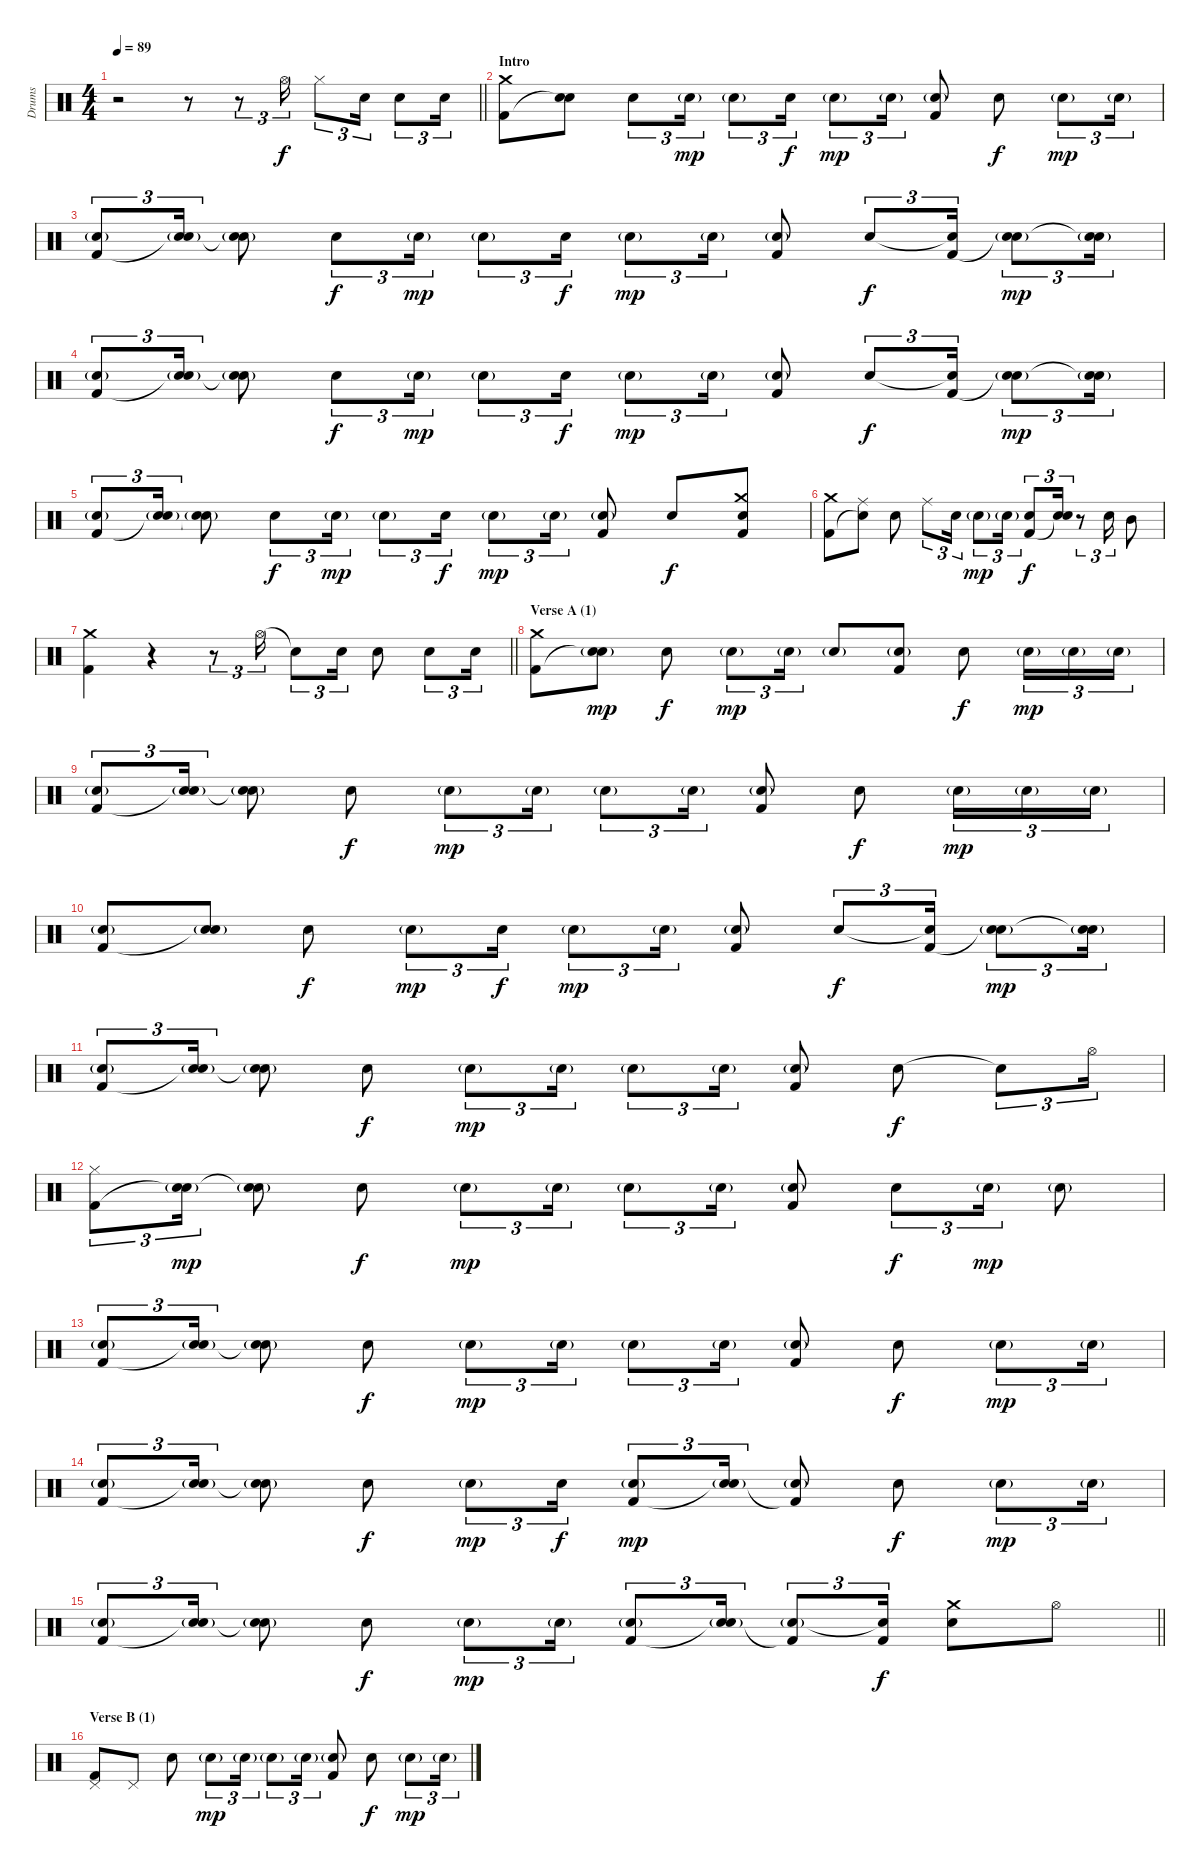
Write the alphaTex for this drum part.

\track ("Drums" "Drums") {instrument percussion}
\staff {score}
\articulation defaults
\ts (4 4)
\tempo 89
\clef neutral
\barLineRight lightlight
\ks c
r.2{dy f} r.8 r.8{tu (3 2)} "Hi-Hat (open)".16{tu (3 2)} "Hi-Hat (closed)".8{tu (3 2)} "Electric Snare (hit)".16{tu (3 2)} "Electric Snare (hit)".8{tu (3 2)} "Electric Snare (hit)".16{tu (3 2)} |
\section ("" "Intro")
("Crash medium (hit)" "Kick (hit) 2").8 ("Electric Snare (hit)" "Snare (hit)"{t}).8 "Electric Snare (hit)".8{tu (3 2)} "Electric Snare (hit)"{g}.16{tu (3 2) dy mp} "Electric Snare (hit)"{g}.8{tu (3 2)} "Electric Snare (hit)".16{tu (3 2) dy f} "Electric Snare (hit)"{g}.8{tu (3 2) dy mp} "Electric Snare (hit)"{g}.16{tu (3 2)} ("Electric Snare (hit)"{g} "Kick (hit) 2").8 "Electric Snare (hit)".8{dy f} "Electric Snare (hit)"{g}.8{tu (3 2) dy mp} "Electric Snare (hit)"{g}.16{tu (3 2)} |
("Electric Snare (hit)"{g} "Kick (hit) 2").8{tu (3 2)} ("Electric Snare (hit)"{g} "Snare (hit)"{t}).16{tu (3 2)} ("Electric Snare (hit)"{g} "Snare (hit)"{t}).8 "Electric Snare (hit)".8{tu (3 2) dy f} "Electric Snare (hit)"{g}.16{tu (3 2) dy mp} "Electric Snare (hit)"{g}.8{tu (3 2)} "Electric Snare (hit)".16{tu (3 2) dy f} "Electric Snare (hit)"{g}.8{tu (3 2) dy mp} "Electric Snare (hit)"{g}.16{tu (3 2)} ("Electric Snare (hit)"{g} "Kick (hit) 2").8 "Electric Snare (hit)".8{tu (3 2) dy f} ("Snare (hit)"{t} "Kick (hit) 2").16{tu (3 2)} ("Electric Snare (hit)"{g} "Snare (hit)"{t}).8{tu (3 2) dy mp} ("Electric Snare (hit)"{g} "Snare (hit)"{t}).16{tu (3 2)} |
("Electric Snare (hit)"{g} "Kick (hit) 2").8{tu (3 2)} ("Electric Snare (hit)"{g} "Snare (hit)"{t}).16{tu (3 2)} ("Electric Snare (hit)"{g} "Snare (hit)"{t}).8 "Electric Snare (hit)".8{tu (3 2) dy f} "Electric Snare (hit)"{g}.16{tu (3 2) dy mp} "Electric Snare (hit)"{g}.8{tu (3 2)} "Electric Snare (hit)".16{tu (3 2) dy f} "Electric Snare (hit)"{g}.8{tu (3 2) dy mp} "Electric Snare (hit)"{g}.16{tu (3 2)} ("Electric Snare (hit)"{g} "Kick (hit) 2").8 "Electric Snare (hit)".8{tu (3 2) dy f} ("Snare (hit)"{t} "Kick (hit) 2").16{tu (3 2)} ("Electric Snare (hit)"{g} "Snare (hit)"{t}).8{tu (3 2) dy mp} ("Electric Snare (hit)"{g} "Snare (hit)"{t}).16{tu (3 2)} |
("Electric Snare (hit)"{g} "Kick (hit) 2").8{tu (3 2)} ("Electric Snare (hit)"{g} "Snare (hit)"{t}).16{tu (3 2)} ("Electric Snare (hit)"{g} "Snare (hit)"{t}).8 "Electric Snare (hit)".8{tu (3 2) dy f} "Electric Snare (hit)"{g}.16{tu (3 2) dy mp} "Electric Snare (hit)"{g}.8{tu (3 2)} "Electric Snare (hit)".16{tu (3 2) dy f} "Electric Snare (hit)"{g}.8{tu (3 2) dy mp} "Electric Snare (hit)"{g}.16{tu (3 2)} ("Electric Snare (hit)"{g} "Kick (hit) 2").8 "Electric Snare (hit)".8{dy f} ("Crash medium (hit)" "Electric Snare (hit)" "Kick (hit) 2").8 |
("Crash medium (hit)" "Kick (hit) 2").8 ("Ride (middle)" "Snare (hit)"{t}).8 "Electric Snare (hit)".8 "Ride (middle)".8{tu (3 2)} "Electric Snare (hit)".16{tu (3 2)} "Electric Snare (hit)"{g}.8{tu (3 2) dy mp} "Electric Snare (hit)"{g}.16{tu (3 2)} ("Electric Snare (hit)" "Kick (hit) 2").8{tu (3 2) dy f} ("Electric Snare (hit)" "Snare (hit)"{t}).16{tu (3 2)} r.8{tu (3 2)} "Electric Snare (hit)".16{tu (3 2)} "Mid Tom (hit)".8 |
\barLineRight lightlight
("Crash medium (hit)" "Kick (hit) 2").4 r.4 r.8{tu (3 2)} "Hi-Hat (open)".16{tu (3 2)} "Snare (hit)"{t}.8{tu (3 2)} "Electric Snare (hit)".16{tu (3 2)} "Electric Snare (hit)".8 "Electric Snare (hit)".8{tu (3 2)} "Electric Snare (hit)".16{tu (3 2)} |
\section ("" "Verse A (1)")
("Crash medium (hit)" "Kick (hit) 2").8 ("Electric Snare (hit)"{g} "Snare (hit)"{t}).8{dy mp} "Electric Snare (hit)".8{dy f} "Electric Snare (hit)"{g}.8{tu (3 2) dy mp} "Electric Snare (hit)"{g}.16{tu (3 2)} "Electric Snare (hit)"{g}.8 ("Electric Snare (hit)"{g} "Kick (hit) 2").8 "Electric Snare (hit)".8{dy f} "Electric Snare (hit)"{g}.16{tu (3 2) dy mp} "Electric Snare (hit)"{g}.16{tu (3 2)} "Electric Snare (hit)"{g}.16{tu (3 2)} |
("Electric Snare (hit)"{g} "Kick (hit) 2").8{tu (3 2)} ("Electric Snare (hit)"{g} "Snare (hit)"{t}).16{tu (3 2)} ("Electric Snare (hit)"{g} "Snare (hit)"{t}).8 "Electric Snare (hit)".8{dy f} "Electric Snare (hit)"{g}.8{tu (3 2) dy mp} "Electric Snare (hit)"{g}.16{tu (3 2)} "Electric Snare (hit)"{g}.8{tu (3 2)} "Electric Snare (hit)"{g}.16{tu (3 2)} ("Electric Snare (hit)"{g} "Kick (hit) 2").8 "Electric Snare (hit)".8{dy f} "Electric Snare (hit)"{g}.16{tu (3 2) dy mp} "Electric Snare (hit)"{g}.16{tu (3 2)} "Electric Snare (hit)"{g}.16{tu (3 2)} |
("Electric Snare (hit)"{g} "Kick (hit) 2").8 ("Electric Snare (hit)"{g} "Snare (hit)"{t}).8 "Electric Snare (hit)".8{dy f} "Electric Snare (hit)"{g}.8{tu (3 2) dy mp} "Electric Snare (hit)".16{tu (3 2) dy f} "Electric Snare (hit)"{g}.8{tu (3 2) dy mp} "Electric Snare (hit)"{g}.16{tu (3 2)} ("Electric Snare (hit)"{g} "Kick (hit) 2").8 "Electric Snare (hit)".8{tu (3 2) dy f} ("Snare (hit)"{t} "Kick (hit) 2").16{tu (3 2)} ("Electric Snare (hit)"{g} "Snare (hit)"{t}).8{tu (3 2) dy mp} ("Electric Snare (hit)"{g} "Snare (hit)"{t}).16{tu (3 2)} |
("Electric Snare (hit)"{g} "Kick (hit) 2").8{tu (3 2)} ("Electric Snare (hit)"{g} "Snare (hit)"{t}).16{tu (3 2)} ("Electric Snare (hit)"{g} "Snare (hit)"{t}).8 "Electric Snare (hit)".8{dy f} "Electric Snare (hit)"{g}.8{tu (3 2) dy mp} "Electric Snare (hit)"{g}.16{tu (3 2)} "Electric Snare (hit)"{g}.8{tu (3 2)} "Electric Snare (hit)"{g}.16{tu (3 2)} ("Electric Snare (hit)"{g} "Kick (hit) 2").8 "Electric Snare (hit)".8{dy f} "Snare (hit)"{t}.8{tu (3 2)} "Hi-Hat (open)".16{tu (3 2)} |
("Hi-Hat (closed)" "Kick (hit) 2").8{tu (3 2)} ("Electric Snare (hit)"{g} "Snare (hit)"{t}).16{tu (3 2) dy mp} ("Electric Snare (hit)"{g} "Snare (hit)"{t}).8 "Electric Snare (hit)".8{dy f} "Electric Snare (hit)"{g}.8{tu (3 2) dy mp} "Electric Snare (hit)"{g}.16{tu (3 2)} "Electric Snare (hit)"{g}.8{tu (3 2)} "Electric Snare (hit)"{g}.16{tu (3 2)} ("Electric Snare (hit)"{g} "Kick (hit) 2").8 "Electric Snare (hit)".8{tu (3 2) dy f} "Electric Snare (hit)"{g}.16{tu (3 2) dy mp} "Electric Snare (hit)"{g}.8 |
("Electric Snare (hit)"{g} "Kick (hit) 2").8{tu (3 2)} ("Electric Snare (hit)"{g} "Snare (hit)"{t}).16{tu (3 2)} ("Electric Snare (hit)"{g} "Snare (hit)"{t}).8 "Electric Snare (hit)".8{dy f} "Electric Snare (hit)"{g}.8{tu (3 2) dy mp} "Electric Snare (hit)"{g}.16{tu (3 2)} "Electric Snare (hit)"{g}.8{tu (3 2)} "Electric Snare (hit)"{g}.16{tu (3 2)} ("Electric Snare (hit)"{g} "Kick (hit) 2").8 "Electric Snare (hit)".8{dy f} "Electric Snare (hit)"{g}.8{tu (3 2) dy mp} "Electric Snare (hit)"{g}.16{tu (3 2)} |
("Electric Snare (hit)"{g} "Kick (hit) 2").8{tu (3 2)} ("Electric Snare (hit)"{g} "Snare (hit)"{t}).16{tu (3 2)} ("Electric Snare (hit)"{g} "Snare (hit)"{t}).8 "Electric Snare (hit)".8{dy f} "Electric Snare (hit)"{g}.8{tu (3 2) dy mp} "Electric Snare (hit)".16{tu (3 2) dy f} ("Electric Snare (hit)"{g} "Kick (hit) 2").8{tu (3 2) dy mp} ("Electric Snare (hit)"{g} "Snare (hit)"{t}).16{tu (3 2)} ("Electric Snare (hit)"{g} "Kick (hit) 2"{t}).8 "Electric Snare (hit)".8{dy f} "Electric Snare (hit)"{g}.8{tu (3 2) dy mp} "Electric Snare (hit)"{g}.16{tu (3 2)} |
\barLineRight lightlight
("Electric Snare (hit)"{g} "Kick (hit) 2").8{tu (3 2)} ("Electric Snare (hit)"{g} "Snare (hit)"{t}).16{tu (3 2)} ("Electric Snare (hit)"{g} "Snare (hit)"{t}).8 "Electric Snare (hit)".8{dy f} "Electric Snare (hit)"{g}.8{tu (3 2) dy mp} "Electric Snare (hit)"{g}.16{tu (3 2)} ("Electric Snare (hit)"{g} "Kick (hit) 2").8{tu (3 2)} ("Electric Snare (hit)"{g} "Snare (hit)"{t}).16{tu (3 2)} ("Electric Snare (hit)"{g} "Kick (hit) 2"{t}).8{tu (3 2)} ("Snare (hit)"{t} "Kick (hit) 2").16{tu (3 2) dy f} ("Crash medium (hit)" "Electric Snare (hit)").8 "Hi-Hat (open)".8 |
\section ("" "Verse B (1)")
("Pedal Hi-Hat (hit)" "Kick (hit) 2").8 "Pedal Hi-Hat (hit)".8 "Electric Snare (hit)".8 "Electric Snare (hit)"{g}.8{tu (3 2) dy mp} "Electric Snare (hit)"{g}.16{tu (3 2)} "Electric Snare (hit)"{g}.8{tu (3 2)} "Electric Snare (hit)"{g}.16{tu (3 2)} ("Electric Snare (hit)"{g} "Kick (hit) 2").8 "Electric Snare (hit)".8{dy f} "Electric Snare (hit)"{g}.8{tu (3 2) dy mp} "Electric Snare (hit)"{g}.16{tu (3 2)}
